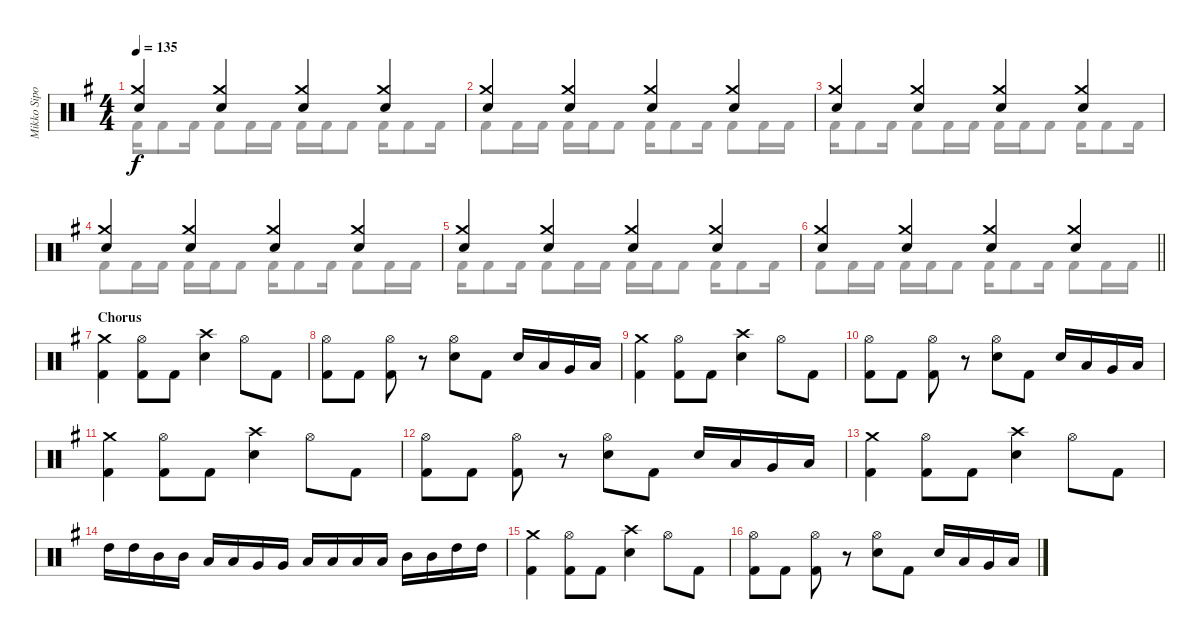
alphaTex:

\track ("Mikko Sipola (drums)" "Mikko Sipo") {instrument percussion}
\staff {score}
\articulation defaults
\voice
\ts (4 4)
\tempo 135
\clef neutral
\ks eminor
("Crash medium (hit)" "Electric Snare (hit)").4{dy f} ("Crash medium (hit)" "Electric Snare (hit)").4 ("Crash medium (hit)" "Electric Snare (hit)").4 ("Crash medium (hit)" "Electric Snare (hit)").4 |
("Crash medium (hit)" "Electric Snare (hit)").4 ("Crash medium (hit)" "Electric Snare (hit)").4 ("Crash medium (hit)" "Electric Snare (hit)").4 ("Crash medium (hit)" "Electric Snare (hit)").4 |
("Crash medium (hit)" "Electric Snare (hit)").4 ("Crash medium (hit)" "Electric Snare (hit)").4 ("Crash medium (hit)" "Electric Snare (hit)").4 ("Crash medium (hit)" "Electric Snare (hit)").4 |
("Crash medium (hit)" "Electric Snare (hit)").4 ("Crash medium (hit)" "Electric Snare (hit)").4 ("Crash medium (hit)" "Electric Snare (hit)").4 ("Crash medium (hit)" "Electric Snare (hit)").4 |
("Crash medium (hit)" "Electric Snare (hit)").4 ("Crash medium (hit)" "Electric Snare (hit)").4 ("Crash medium (hit)" "Electric Snare (hit)").4 ("Crash medium (hit)" "Electric Snare (hit)").4 |
\barLineRight lightlight
("Crash medium (hit)" "Electric Snare (hit)").4 ("Crash medium (hit)" "Electric Snare (hit)").4 ("Crash medium (hit)" "Electric Snare (hit)").4 ("Crash medium (hit)" "Electric Snare (hit)").4 |
\section ("" "Chorus")
("Crash medium (hit)" "Kick (hit) 2").4 ("Hi-Hat (open)" "Kick (hit) 2").8 "Kick (hit) 2".8 ("Electric Snare (hit)" "Crash high (hit)").4 "Hi-Hat (open)".8 "Kick (hit) 2".8 |
("Hi-Hat (open)" "Kick (hit) 2").8 "Kick (hit) 2".8 ("Hi-Hat (open)" "Kick (hit) 2").8 r.8 ("Electric Snare (hit)" "Hi-Hat (open)").8 "Kick (hit) 2".8 "Electric Snare (hit)".16 "Low Tom (hit)".16 "Very Low Tom (hit)".16 "Low Floor Tom (hit)".16 |
("Crash medium (hit)" "Kick (hit) 2").4 ("Hi-Hat (open)" "Kick (hit) 2").8 "Kick (hit) 2".8 ("Electric Snare (hit)" "Crash high (hit)").4 "Hi-Hat (open)".8 "Kick (hit) 2".8 |
("Hi-Hat (open)" "Kick (hit) 2").8 "Kick (hit) 2".8 ("Hi-Hat (open)" "Kick (hit) 2").8 r.8 ("Electric Snare (hit)" "Hi-Hat (open)").8 "Kick (hit) 2".8 "Electric Snare (hit)".16 "Low Tom (hit)".16 "Very Low Tom (hit)".16 "Low Floor Tom (hit)".16 |
("Crash medium (hit)" "Kick (hit) 2").4 ("Hi-Hat (open)" "Kick (hit) 2").8 "Kick (hit) 2".8 ("Electric Snare (hit)" "Crash high (hit)").4 "Hi-Hat (open)".8 "Kick (hit) 2".8 |
("Hi-Hat (open)" "Kick (hit) 2").8 "Kick (hit) 2".8 ("Hi-Hat (open)" "Kick (hit) 2").8 r.8 ("Electric Snare (hit)" "Hi-Hat (open)").8 "Kick (hit) 2".8 "Electric Snare (hit)".16 "Low Tom (hit)".16 "Very Low Tom (hit)".16 "Low Floor Tom (hit)".16 |
("Crash medium (hit)" "Kick (hit) 2").4 ("Hi-Hat (open)" "Kick (hit) 2").8 "Kick (hit) 2".8 ("Electric Snare (hit)" "Crash high (hit)").4 "Hi-Hat (open)".8 "Kick (hit) 2".8 |
"High Tom (hit)".16 "High Tom (hit)".16 "Mid Tom (hit)".16 "Mid Tom (hit)".16 "Low Tom (hit)".16 "Low Tom (hit)".16 "Very Low Tom (hit)".16 "Very Low Tom (hit)".16 "Low Floor Tom (hit)".16 "Low Floor Tom (hit)".16 "Low Tom (hit)".16 "Low Tom (hit)".16 "Mid Tom (hit)".16 "Mid Tom (hit)".16 "High Tom (hit)".16 "High Tom (hit)".16 |
("Crash medium (hit)" "Kick (hit) 2").4 ("Hi-Hat (open)" "Kick (hit) 2").8 "Kick (hit) 2".8 ("Electric Snare (hit)" "Crash high (hit)").4 "Hi-Hat (open)".8 "Kick (hit) 2".8 |
("Hi-Hat (open)" "Kick (hit) 2").8 "Kick (hit) 2".8 ("Hi-Hat (open)" "Kick (hit) 2").8 r.8 ("Electric Snare (hit)" "Hi-Hat (open)").8 "Kick (hit) 2".8 "Electric Snare (hit)".16 "Low Tom (hit)".16 "Very Low Tom (hit)".16 "Low Floor Tom (hit)".16
\voice
\clef neutral
\ottava regular
\simile none
\ks eminor "Kick (hit) 2".16{dy f} "Kick (hit) 2".8 "Kick (hit) 2".16 "Kick (hit) 2".8 "Kick (hit) 2".16 "Kick (hit) 2".16 "Kick (hit) 2".16 "Kick (hit) 2".16 "Kick (hit) 2".8 "Kick (hit) 2".16 "Kick (hit) 2".8 "Kick (hit) 2".16
|
"Kick (hit) 2".8 "Kick (hit) 2".16 "Kick (hit) 2".16 "Kick (hit) 2".16 "Kick (hit) 2".16 "Kick (hit) 2".8 "Kick (hit) 2".16 "Kick (hit) 2".8 "Kick (hit) 2".16 "Kick (hit) 2".8 "Kick (hit) 2".16 "Kick (hit) 2".16 |
"Kick (hit) 2".16 "Kick (hit) 2".8 "Kick (hit) 2".16 "Kick (hit) 2".8 "Kick (hit) 2".16 "Kick (hit) 2".16 "Kick (hit) 2".16 "Kick (hit) 2".16 "Kick (hit) 2".8 "Kick (hit) 2".16 "Kick (hit) 2".8 "Kick (hit) 2".16 |
"Kick (hit) 2".8 "Kick (hit) 2".16 "Kick (hit) 2".16 "Kick (hit) 2".16 "Kick (hit) 2".16 "Kick (hit) 2".8 "Kick (hit) 2".16 "Kick (hit) 2".8 "Kick (hit) 2".16 "Kick (hit) 2".8 "Kick (hit) 2".16 "Kick (hit) 2".16 |
"Kick (hit) 2".16 "Kick (hit) 2".8 "Kick (hit) 2".16 "Kick (hit) 2".8 "Kick (hit) 2".16 "Kick (hit) 2".16 "Kick (hit) 2".16 "Kick (hit) 2".16 "Kick (hit) 2".8 "Kick (hit) 2".16 "Kick (hit) 2".8 "Kick (hit) 2".16 |
\barLineRight lightlight "Kick (hit) 2".8 "Kick (hit) 2".16 "Kick (hit) 2".16 "Kick (hit) 2".16 "Kick (hit) 2".16 "Kick (hit) 2".8 "Kick (hit) 2".16 "Kick (hit) 2".8 "Kick (hit) 2".16 "Kick (hit) 2".8 "Kick (hit) 2".16 "Kick (hit) 2".16
|
|
|
|
|
|
|
|
|
|
